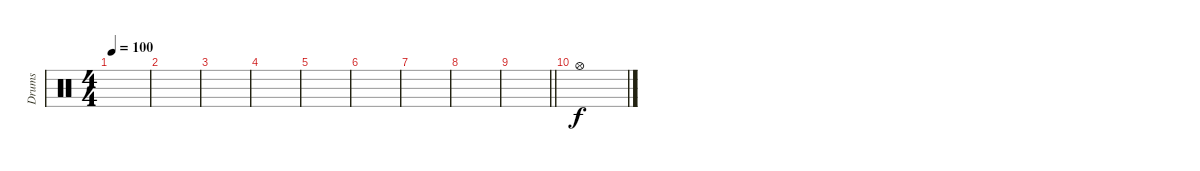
\track ("Drums" "Drums") {instrument percussion}
\staff {score}
\articulation defaults
\ts (4 4)
\tempo 100
\clef neutral
\ks c
|
|
|
|
|
|
|
|
\barLineRight lightlight
|
"Hi-Hat (open)".1
